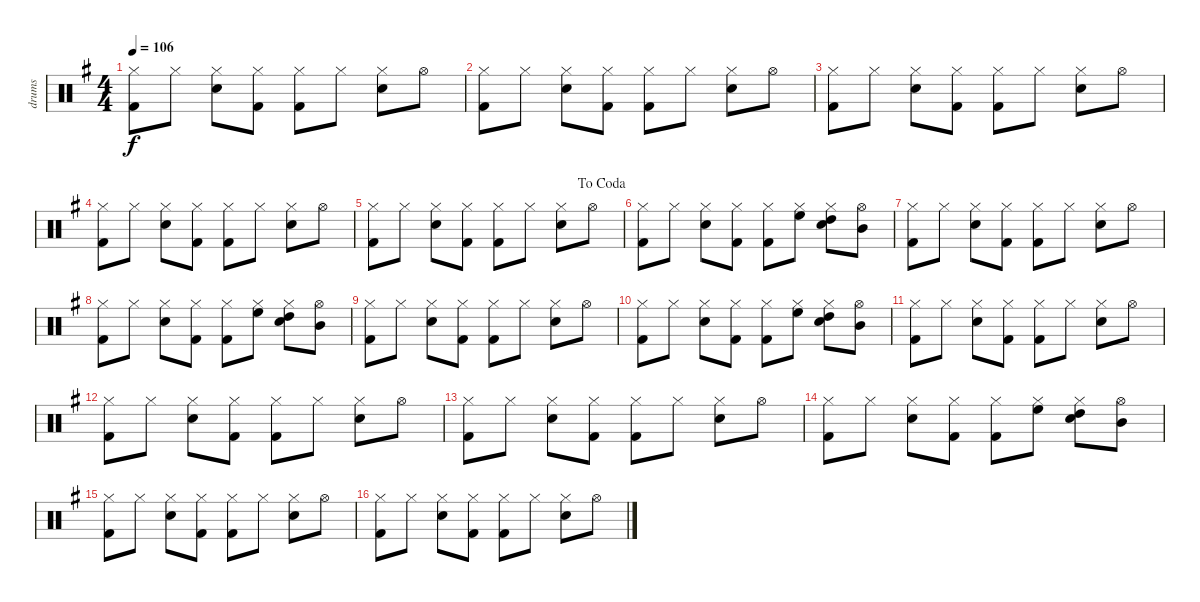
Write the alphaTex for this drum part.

\track ("drums" "drums") {instrument percussion}
\staff {score}
\articulation defaults
\ts (4 4)
\tempo 106
\clef neutral
\ks g
("Hi-Hat (closed)" "Kick (hit) 2").8{dy f} "Hi-Hat (closed)".8 ("Hi-Hat (closed)" "Snare (hit) 2").8 ("Hi-Hat (closed)" "Kick (hit) 2").8 ("Hi-Hat (closed)" "Kick (hit) 2").8 "Hi-Hat (closed)".8 ("Hi-Hat (closed)" "Snare (hit) 2").8 "Hi-Hat (open)".8 |
("Hi-Hat (closed)" "Kick (hit) 2").8 "Hi-Hat (closed)".8 ("Hi-Hat (closed)" "Snare (hit) 2").8 ("Hi-Hat (closed)" "Kick (hit) 2").8 ("Hi-Hat (closed)" "Kick (hit) 2").8 "Hi-Hat (closed)".8 ("Hi-Hat (closed)" "Snare (hit) 2").8 "Hi-Hat (open)".8 |
("Hi-Hat (closed)" "Kick (hit) 2").8 "Hi-Hat (closed)".8 ("Hi-Hat (closed)" "Snare (hit) 2").8 ("Hi-Hat (closed)" "Kick (hit) 2").8 ("Hi-Hat (closed)" "Kick (hit) 2").8 "Hi-Hat (closed)".8 ("Hi-Hat (closed)" "Snare (hit) 2").8 "Hi-Hat (open)".8 |
("Hi-Hat (closed)" "Kick (hit) 2").8 "Hi-Hat (closed)".8 ("Hi-Hat (closed)" "Snare (hit) 2").8 ("Hi-Hat (closed)" "Kick (hit) 2").8 ("Hi-Hat (closed)" "Kick (hit) 2").8 "Hi-Hat (closed)".8 ("Hi-Hat (closed)" "Snare (hit) 2").8 "Hi-Hat (open)".8 |
\jump dacoda
("Hi-Hat (closed)" "Kick (hit) 2").8 "Hi-Hat (closed)".8 ("Hi-Hat (closed)" "Snare (hit) 2").8 ("Hi-Hat (closed)" "Kick (hit) 2").8 ("Hi-Hat (closed)" "Kick (hit) 2").8 "Hi-Hat (closed)".8 ("Hi-Hat (closed)" "Snare (hit) 2").8 "Hi-Hat (open)".8 |
("Hi-Hat (closed)" "Kick (hit) 2").8 "Hi-Hat (closed)".8 ("Hi-Hat (closed)" "Snare (hit) 2").8 ("Hi-Hat (closed)" "Kick (hit) 2").8 ("Hi-Hat (closed)" "Kick (hit) 2").8 ("Hi-Hat (closed)" "High Floor Tom (hit)").8 ("Hi-Hat (closed)" "High Tom (hit)" "Snare (hit) 2").8 ("Hi-Hat (open)" "Mid Tom (hit)").8 |
("Hi-Hat (closed)" "Kick (hit) 2").8 "Hi-Hat (closed)".8 ("Hi-Hat (closed)" "Snare (hit) 2").8 ("Hi-Hat (closed)" "Kick (hit) 2").8 ("Hi-Hat (closed)" "Kick (hit) 2").8 "Hi-Hat (closed)".8 ("Hi-Hat (closed)" "Snare (hit) 2").8 "Hi-Hat (open)".8 |
("Hi-Hat (closed)" "Kick (hit) 2").8 "Hi-Hat (closed)".8 ("Hi-Hat (closed)" "Snare (hit) 2").8 ("Hi-Hat (closed)" "Kick (hit) 2").8 ("Hi-Hat (closed)" "Kick (hit) 2").8 ("Hi-Hat (closed)" "High Floor Tom (hit)").8 ("Hi-Hat (closed)" "High Tom (hit)" "Snare (hit) 2").8 ("Hi-Hat (open)" "Mid Tom (hit)").8 |
("Hi-Hat (closed)" "Kick (hit) 2").8 "Hi-Hat (closed)".8 ("Hi-Hat (closed)" "Snare (hit) 2").8 ("Hi-Hat (closed)" "Kick (hit) 2").8 ("Hi-Hat (closed)" "Kick (hit) 2").8 "Hi-Hat (closed)".8 ("Hi-Hat (closed)" "Snare (hit) 2").8 "Hi-Hat (open)".8 |
("Hi-Hat (closed)" "Kick (hit) 2").8 "Hi-Hat (closed)".8 ("Hi-Hat (closed)" "Snare (hit) 2").8 ("Hi-Hat (closed)" "Kick (hit) 2").8 ("Hi-Hat (closed)" "Kick (hit) 2").8 ("Hi-Hat (closed)" "High Floor Tom (hit)").8 ("Hi-Hat (closed)" "High Tom (hit)" "Snare (hit) 2").8 ("Hi-Hat (open)" "Mid Tom (hit)").8 |
("Hi-Hat (closed)" "Kick (hit) 2").8 "Hi-Hat (closed)".8 ("Hi-Hat (closed)" "Snare (hit) 2").8 ("Hi-Hat (closed)" "Kick (hit) 2").8 ("Hi-Hat (closed)" "Kick (hit) 2").8 "Hi-Hat (closed)".8 ("Hi-Hat (closed)" "Snare (hit) 2").8 "Hi-Hat (open)".8 |
("Hi-Hat (closed)" "Kick (hit) 2").8 "Hi-Hat (closed)".8 ("Hi-Hat (closed)" "Snare (hit) 2").8 ("Hi-Hat (closed)" "Kick (hit) 2").8 ("Hi-Hat (closed)" "Kick (hit) 2").8 "Hi-Hat (closed)".8 ("Hi-Hat (closed)" "Snare (hit) 2").8 "Hi-Hat (open)".8 |
("Hi-Hat (closed)" "Kick (hit) 2").8 "Hi-Hat (closed)".8 ("Hi-Hat (closed)" "Snare (hit) 2").8 ("Hi-Hat (closed)" "Kick (hit) 2").8 ("Hi-Hat (closed)" "Kick (hit) 2").8 "Hi-Hat (closed)".8 ("Hi-Hat (closed)" "Snare (hit) 2").8 "Hi-Hat (open)".8 |
("Hi-Hat (closed)" "Kick (hit) 2").8 "Hi-Hat (closed)".8 ("Hi-Hat (closed)" "Snare (hit) 2").8 ("Hi-Hat (closed)" "Kick (hit) 2").8 ("Hi-Hat (closed)" "Kick (hit) 2").8 ("Hi-Hat (closed)" "High Floor Tom (hit)").8 ("Hi-Hat (closed)" "High Tom (hit)" "Snare (hit) 2").8 ("Hi-Hat (open)" "Mid Tom (hit)").8 |
("Hi-Hat (closed)" "Kick (hit) 2").8 "Hi-Hat (closed)".8 ("Hi-Hat (closed)" "Snare (hit) 2").8 ("Hi-Hat (closed)" "Kick (hit) 2").8 ("Hi-Hat (closed)" "Kick (hit) 2").8 "Hi-Hat (closed)".8 ("Hi-Hat (closed)" "Snare (hit) 2").8 "Hi-Hat (open)".8 |
("Hi-Hat (closed)" "Kick (hit) 2").8 "Hi-Hat (closed)".8 ("Hi-Hat (closed)" "Snare (hit) 2").8 ("Hi-Hat (closed)" "Kick (hit) 2").8 ("Hi-Hat (closed)" "Kick (hit) 2").8 "Hi-Hat (closed)".8 ("Hi-Hat (closed)" "Snare (hit) 2").8 "Hi-Hat (open)".8
